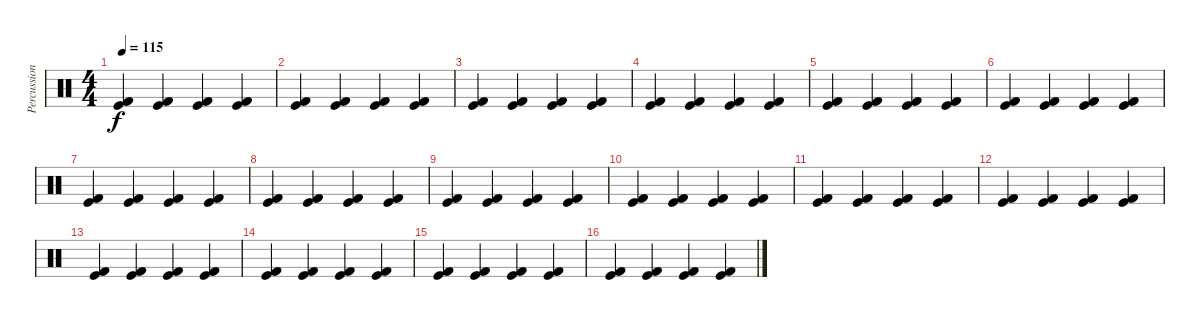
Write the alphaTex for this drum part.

\track ("Percussion" "Percussion") {instrument percussion}
\staff {score}
\articulation defaults
\ts (4 4)
\tempo 115
\clef neutral
\ks c
("Kick (hit) 2" "Kick (hit)").4{dy f} ("Kick (hit) 2" "Kick (hit)").4 ("Kick (hit) 2" "Kick (hit)").4 ("Kick (hit) 2" "Kick (hit)").4 |
("Kick (hit) 2" "Kick (hit)").4 ("Kick (hit) 2" "Kick (hit)").4 ("Kick (hit) 2" "Kick (hit)").4 ("Kick (hit) 2" "Kick (hit)").4 |
("Kick (hit) 2" "Kick (hit)").4 ("Kick (hit) 2" "Kick (hit)").4 ("Kick (hit) 2" "Kick (hit)").4 ("Kick (hit) 2" "Kick (hit)").4 |
("Kick (hit) 2" "Kick (hit)").4 ("Kick (hit) 2" "Kick (hit)").4 ("Kick (hit) 2" "Kick (hit)").4 ("Kick (hit) 2" "Kick (hit)").4 |
("Kick (hit) 2" "Kick (hit)").4 ("Kick (hit) 2" "Kick (hit)").4 ("Kick (hit) 2" "Kick (hit)").4 ("Kick (hit) 2" "Kick (hit)").4 |
("Kick (hit) 2" "Kick (hit)").4{volume 12} ("Kick (hit) 2" "Kick (hit)").4 ("Kick (hit) 2" "Kick (hit)").4 ("Kick (hit) 2" "Kick (hit)").4 |
("Kick (hit) 2" "Kick (hit)").4 ("Kick (hit) 2" "Kick (hit)").4 ("Kick (hit) 2" "Kick (hit)").4 ("Kick (hit) 2" "Kick (hit)").4 |
("Kick (hit) 2" "Kick (hit)").4 ("Kick (hit) 2" "Kick (hit)").4 ("Kick (hit) 2" "Kick (hit)").4 ("Kick (hit) 2" "Kick (hit)").4 |
("Kick (hit) 2" "Kick (hit)").4 ("Kick (hit) 2" "Kick (hit)").4 ("Kick (hit) 2" "Kick (hit)").4 ("Kick (hit) 2" "Kick (hit)").4 |
("Kick (hit) 2" "Kick (hit)").4 ("Kick (hit) 2" "Kick (hit)").4 ("Kick (hit) 2" "Kick (hit)").4 ("Kick (hit) 2" "Kick (hit)").4{volume 14} |
("Kick (hit) 2" "Kick (hit)").4 ("Kick (hit) 2" "Kick (hit)").4 ("Kick (hit) 2" "Kick (hit)").4 ("Kick (hit) 2" "Kick (hit)").4 |
("Kick (hit) 2" "Kick (hit)").4 ("Kick (hit) 2" "Kick (hit)").4 ("Kick (hit) 2" "Kick (hit)").4 ("Kick (hit) 2" "Kick (hit)").4 |
("Kick (hit) 2" "Kick (hit)").4 ("Kick (hit) 2" "Kick (hit)").4 ("Kick (hit) 2" "Kick (hit)").4 ("Kick (hit) 2" "Kick (hit)").4 |
("Kick (hit) 2" "Kick (hit)").4 ("Kick (hit) 2" "Kick (hit)").4 ("Kick (hit) 2" "Kick (hit)").4 ("Kick (hit) 2" "Kick (hit)").4 |
("Kick (hit) 2" "Kick (hit)").4 ("Kick (hit) 2" "Kick (hit)").4 ("Kick (hit) 2" "Kick (hit)").4 ("Kick (hit) 2" "Kick (hit)").4 |
("Kick (hit) 2" "Kick (hit)").4 ("Kick (hit) 2" "Kick (hit)").4 ("Kick (hit) 2" "Kick (hit)").4 ("Kick (hit) 2" "Kick (hit)").4
